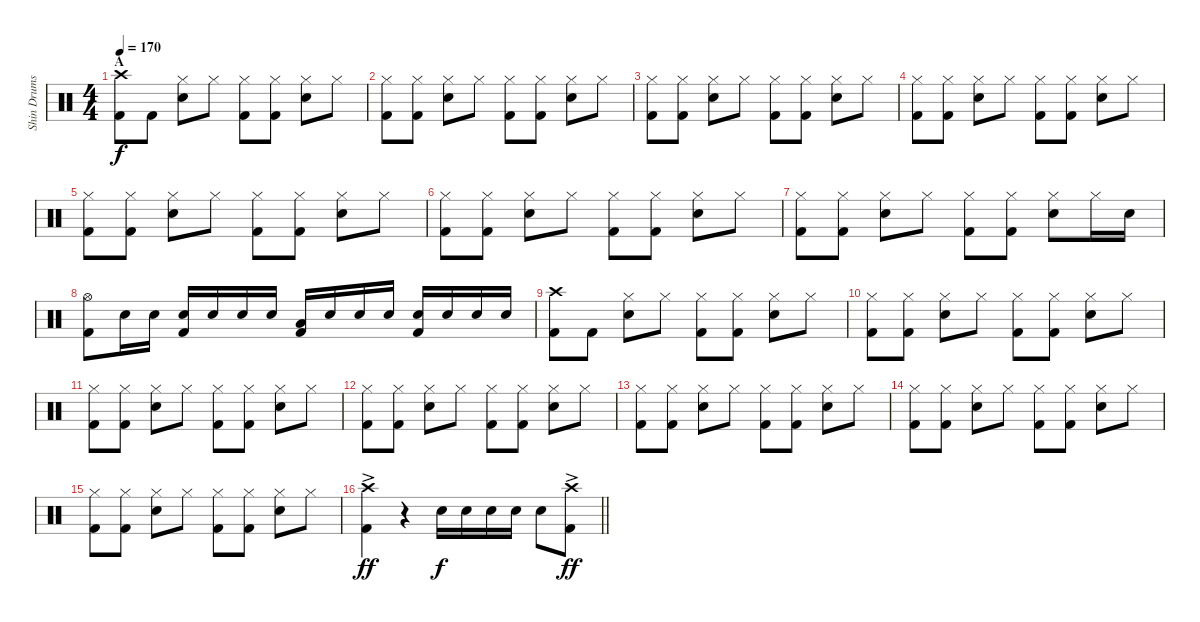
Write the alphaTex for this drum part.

\track ("Shin Drums" "Shin Drums") {instrument percussion}
\staff {score}
\articulation defaults
\ts (4 4)
\section ("" "A")
\tempo 170
\clef neutral
\ks c
("Crash high (hit)" "Kick (hit) 2").8{dy f} "Kick (hit) 2".8 ("Hi-Hat (closed)" "Snare (hit) 2").8 "Hi-Hat (closed)".8 ("Hi-Hat (closed)" "Kick (hit) 2").8 ("Hi-Hat (closed)" "Kick (hit) 2").8 ("Hi-Hat (closed)" "Snare (hit) 2").8 "Hi-Hat (closed)".8 |
("Hi-Hat (closed)" "Kick (hit) 2").8 ("Hi-Hat (closed)" "Kick (hit) 2").8 ("Hi-Hat (closed)" "Snare (hit) 2").8 "Hi-Hat (closed)".8 ("Hi-Hat (closed)" "Kick (hit) 2").8 ("Hi-Hat (closed)" "Kick (hit) 2").8 ("Hi-Hat (closed)" "Snare (hit) 2").8 "Hi-Hat (closed)".8 |
("Hi-Hat (closed)" "Kick (hit) 2").8 ("Hi-Hat (closed)" "Kick (hit) 2").8 ("Hi-Hat (closed)" "Snare (hit) 2").8 "Hi-Hat (closed)".8 ("Hi-Hat (closed)" "Kick (hit) 2").8 ("Hi-Hat (closed)" "Kick (hit) 2").8 ("Hi-Hat (closed)" "Snare (hit) 2").8 "Hi-Hat (closed)".8 |
("Hi-Hat (closed)" "Kick (hit) 2").8 ("Hi-Hat (closed)" "Kick (hit) 2").8 ("Hi-Hat (closed)" "Snare (hit) 2").8 "Hi-Hat (closed)".8 ("Hi-Hat (closed)" "Kick (hit) 2").8 ("Hi-Hat (closed)" "Kick (hit) 2").8 ("Hi-Hat (closed)" "Snare (hit) 2").8 "Hi-Hat (closed)".8 |
("Hi-Hat (closed)" "Kick (hit) 2").8 ("Hi-Hat (closed)" "Kick (hit) 2").8 ("Hi-Hat (closed)" "Snare (hit) 2").8 "Hi-Hat (closed)".8 ("Hi-Hat (closed)" "Kick (hit) 2").8 ("Hi-Hat (closed)" "Kick (hit) 2").8 ("Hi-Hat (closed)" "Snare (hit) 2").8 "Hi-Hat (closed)".8 |
("Hi-Hat (closed)" "Kick (hit) 2").8 ("Hi-Hat (closed)" "Kick (hit) 2").8 ("Hi-Hat (closed)" "Snare (hit) 2").8 "Hi-Hat (closed)".8 ("Hi-Hat (closed)" "Kick (hit) 2").8 ("Hi-Hat (closed)" "Kick (hit) 2").8 ("Hi-Hat (closed)" "Snare (hit) 2").8 "Hi-Hat (closed)".8 |
("Hi-Hat (closed)" "Kick (hit) 2").8 ("Hi-Hat (closed)" "Kick (hit) 2").8 ("Hi-Hat (closed)" "Snare (hit) 2").8 "Hi-Hat (closed)".8 ("Hi-Hat (closed)" "Kick (hit) 2").8 ("Hi-Hat (closed)" "Kick (hit) 2").8 ("Hi-Hat (closed)" "Snare (hit) 2").8 "Hi-Hat (closed)".16 "Snare (hit) 2".16 |
("Hi-Hat (open)" "Kick (hit) 2").8 "Snare (hit) 2".16 "Snare (hit) 2".16 ("Snare (hit) 2" "Kick (hit) 2").16 "Snare (hit) 2".16 "Snare (hit) 2".16 "Snare (hit) 2".16 ("Low Tom (hit)" "Kick (hit) 2").16 "Snare (hit) 2".16 "Snare (hit) 2".16 "Snare (hit) 2".16 ("Snare (hit) 2" "Kick (hit) 2").16 "Snare (hit) 2".16 "Snare (hit) 2".16 "Snare (hit) 2".16 |
("Crash high (hit)" "Kick (hit) 2").8 "Kick (hit) 2".8 ("Hi-Hat (closed)" "Snare (hit) 2").8 "Hi-Hat (closed)".8 ("Hi-Hat (closed)" "Kick (hit) 2").8 ("Hi-Hat (closed)" "Kick (hit) 2").8 ("Hi-Hat (closed)" "Snare (hit) 2").8 "Hi-Hat (closed)".8 |
("Hi-Hat (closed)" "Kick (hit) 2").8 ("Hi-Hat (closed)" "Kick (hit) 2").8 ("Hi-Hat (closed)" "Snare (hit) 2").8 "Hi-Hat (closed)".8 ("Hi-Hat (closed)" "Kick (hit) 2").8 ("Hi-Hat (closed)" "Kick (hit) 2").8 ("Hi-Hat (closed)" "Snare (hit) 2").8 "Hi-Hat (closed)".8 |
("Hi-Hat (closed)" "Kick (hit) 2").8 ("Hi-Hat (closed)" "Kick (hit) 2").8 ("Hi-Hat (closed)" "Snare (hit) 2").8 "Hi-Hat (closed)".8 ("Hi-Hat (closed)" "Kick (hit) 2").8 ("Hi-Hat (closed)" "Kick (hit) 2").8 ("Hi-Hat (closed)" "Snare (hit) 2").8 "Hi-Hat (closed)".8 |
("Hi-Hat (closed)" "Kick (hit) 2").8 ("Hi-Hat (closed)" "Kick (hit) 2").8 ("Hi-Hat (closed)" "Snare (hit) 2").8 "Hi-Hat (closed)".8 ("Hi-Hat (closed)" "Kick (hit) 2").8 ("Hi-Hat (closed)" "Kick (hit) 2").8 ("Hi-Hat (closed)" "Snare (hit) 2").8 "Hi-Hat (closed)".8 |
("Hi-Hat (closed)" "Kick (hit) 2").8 ("Hi-Hat (closed)" "Kick (hit) 2").8 ("Hi-Hat (closed)" "Snare (hit) 2").8 "Hi-Hat (closed)".8 ("Hi-Hat (closed)" "Kick (hit) 2").8 ("Hi-Hat (closed)" "Kick (hit) 2").8 ("Hi-Hat (closed)" "Snare (hit) 2").8 "Hi-Hat (closed)".8 |
("Hi-Hat (closed)" "Kick (hit) 2").8 ("Hi-Hat (closed)" "Kick (hit) 2").8 ("Hi-Hat (closed)" "Snare (hit) 2").8 "Hi-Hat (closed)".8 ("Hi-Hat (closed)" "Kick (hit) 2").8 ("Hi-Hat (closed)" "Kick (hit) 2").8 ("Hi-Hat (closed)" "Snare (hit) 2").8 "Hi-Hat (closed)".8 |
("Hi-Hat (closed)" "Kick (hit) 2").8 ("Hi-Hat (closed)" "Kick (hit) 2").8 ("Hi-Hat (closed)" "Snare (hit) 2").8 "Hi-Hat (closed)".8 ("Hi-Hat (closed)" "Kick (hit) 2").8 ("Hi-Hat (closed)" "Kick (hit) 2").8 ("Hi-Hat (closed)" "Snare (hit) 2").8 "Hi-Hat (closed)".8 |
\barLineRight lightlight
("Crash high (hit)"{ac} "Kick (hit) 2").4{dy ff} r.4 "Snare (hit) 2".16{dy f} "Snare (hit) 2".16 "Snare (hit) 2".16 "Snare (hit) 2".16 "Snare (hit) 2".8 ("Crash high (hit)"{ac} "Kick (hit) 2").8{dy ff}
